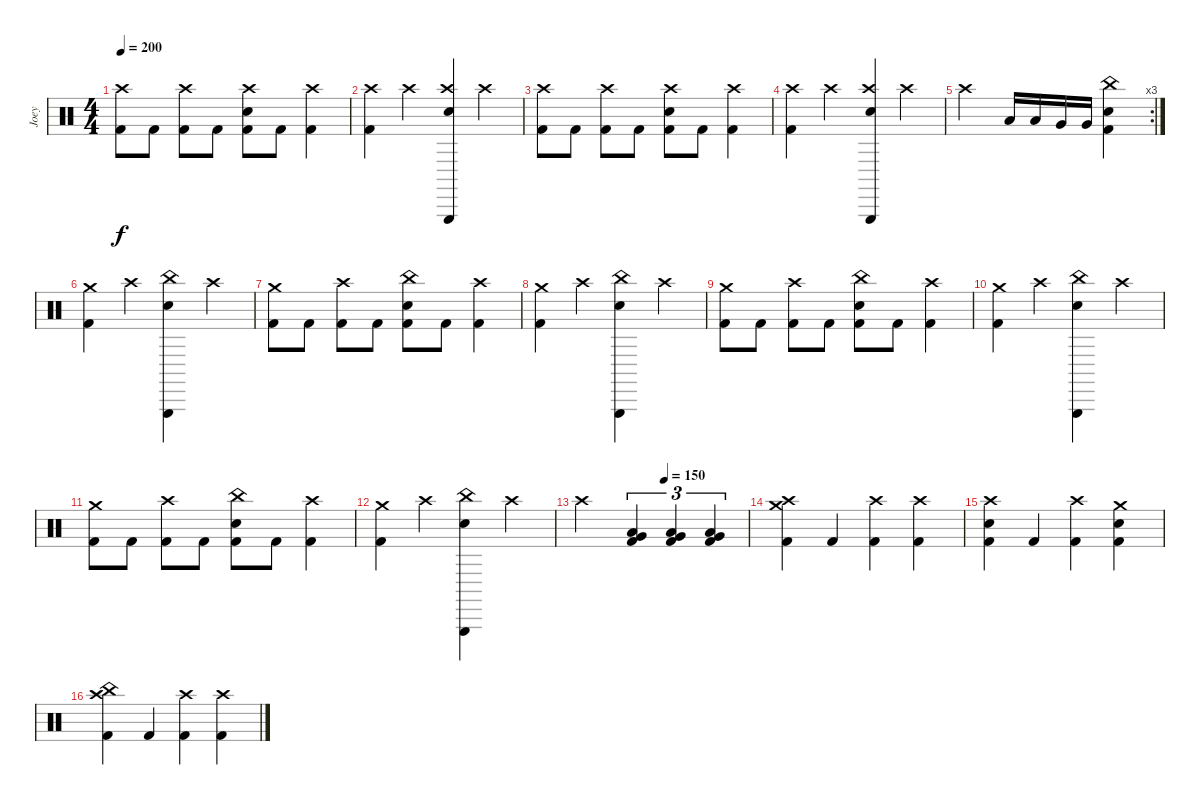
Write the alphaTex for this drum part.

\track ("Joey" "Joey") {instrument percussion}
\staff {score}
\articulation defaults
\ts (4 4)
\tempo 200
\clef neutral
\ks c
("Crash high (hit)" "Kick (hit) 2").8{dy f} "Kick (hit) 2".8 ("Crash high (hit)" "Kick (hit) 2").8 "Kick (hit) 2".8 ("Crash high (hit)" "Electric Snare (hit)" "Kick (hit) 2").8 "Kick (hit) 2".8 ("Crash high (hit)" "Kick (hit) 2").4 |
("Crash high (hit)" "Kick (hit) 2").4 "Crash high (hit)".4 ("Crash high (hit)" "Triangle (hit)" "Electric Snare (hit)").4 "Crash high (hit)".4 |
("Crash high (hit)" "Kick (hit) 2").8 "Kick (hit) 2".8 ("Crash high (hit)" "Kick (hit) 2").8 "Kick (hit) 2".8 ("Crash high (hit)" "Electric Snare (hit)" "Kick (hit) 2").8 "Kick (hit) 2".8 ("Crash high (hit)" "Kick (hit) 2").4 |
("Crash high (hit)" "Kick (hit) 2").4 "Crash high (hit)".4 ("Crash high (hit)" "Triangle (hit)" "Electric Snare (hit)").4 "Crash high (hit)".4 |
\rc 3 "Crash high (hit)".2 "Low Tom (hit)".16 "Low Tom (hit)".16 "Very Low Tom (hit)".16 "Very Low Tom (hit)".16
("China (hit)" "Electric Snare (hit)" "Kick (hit) 2").4 |
("Crash medium (hit)" "Kick (hit) 2").4 "Crash high (hit)".4 ("China (hit)" "Triangle (hit)" "Electric Snare (hit)").4 "Crash high (hit)".4 |
("Crash medium (hit)" "Kick (hit) 2").8 "Kick (hit) 2".8 ("Crash high (hit)" "Kick (hit) 2").8 "Kick (hit) 2".8 ("China (hit)" "Electric Snare (hit)" "Kick (hit) 2").8 "Kick (hit) 2".8 ("Crash high (hit)" "Kick (hit) 2").4 |
("Crash medium (hit)" "Kick (hit) 2").4 "Crash high (hit)".4 ("China (hit)" "Triangle (hit)" "Electric Snare (hit)").4 "Crash high (hit)".4 |
("Crash medium (hit)" "Kick (hit) 2").8 "Kick (hit) 2".8 ("Crash high (hit)" "Kick (hit) 2").8 "Kick (hit) 2".8 ("China (hit)" "Electric Snare (hit)" "Kick (hit) 2").8 "Kick (hit) 2".8 ("Crash high (hit)" "Kick (hit) 2").4 |
("Crash medium (hit)" "Kick (hit) 2").4 "Crash high (hit)".4 ("China (hit)" "Triangle (hit)" "Electric Snare (hit)").4 "Crash high (hit)".4 |
("Crash medium (hit)" "Kick (hit) 2").8 "Kick (hit) 2".8 ("Crash high (hit)" "Kick (hit) 2").8 "Kick (hit) 2".8 ("China (hit)" "Electric Snare (hit)" "Kick (hit) 2").8 "Kick (hit) 2".8 ("Crash high (hit)" "Kick (hit) 2").4 |
("Crash medium (hit)" "Kick (hit) 2").4 "Crash high (hit)".4 ("China (hit)" "Triangle (hit)" "Electric Snare (hit)").4 "Crash high (hit)".4 |
\tempo (150 0.5)
"Crash high (hit)".2 ("Very Low Tom (hit)" "Low Tom (hit)" "Kick (hit) 2").4{tu (3 2)} ("Very Low Tom (hit)" "Low Tom (hit)" "Kick (hit) 2").4{tu (3 2)} ("Very Low Tom (hit)" "Low Tom (hit)" "Kick (hit) 2").4{tu (3 2)} |
("Crash high (hit)" "Crash medium (hit)" "Kick (hit) 2").4 "Kick (hit) 2".4 ("Crash high (hit)" "Kick (hit) 2").4 ("Crash high (hit)" "Kick (hit) 2").4 |
("Crash high (hit)" "Electric Snare (hit)" "Kick (hit) 2").4 "Kick (hit) 2".4 ("Crash high (hit)" "Kick (hit) 2").4 ("Crash medium (hit)" "Electric Snare (hit)" "Kick (hit) 2").4 |
("China (hit)" "Crash high (hit)" "Kick (hit) 2").4 "Kick (hit) 2".4 ("Crash high (hit)" "Kick (hit) 2").4 ("Crash high (hit)" "Kick (hit) 2").4
